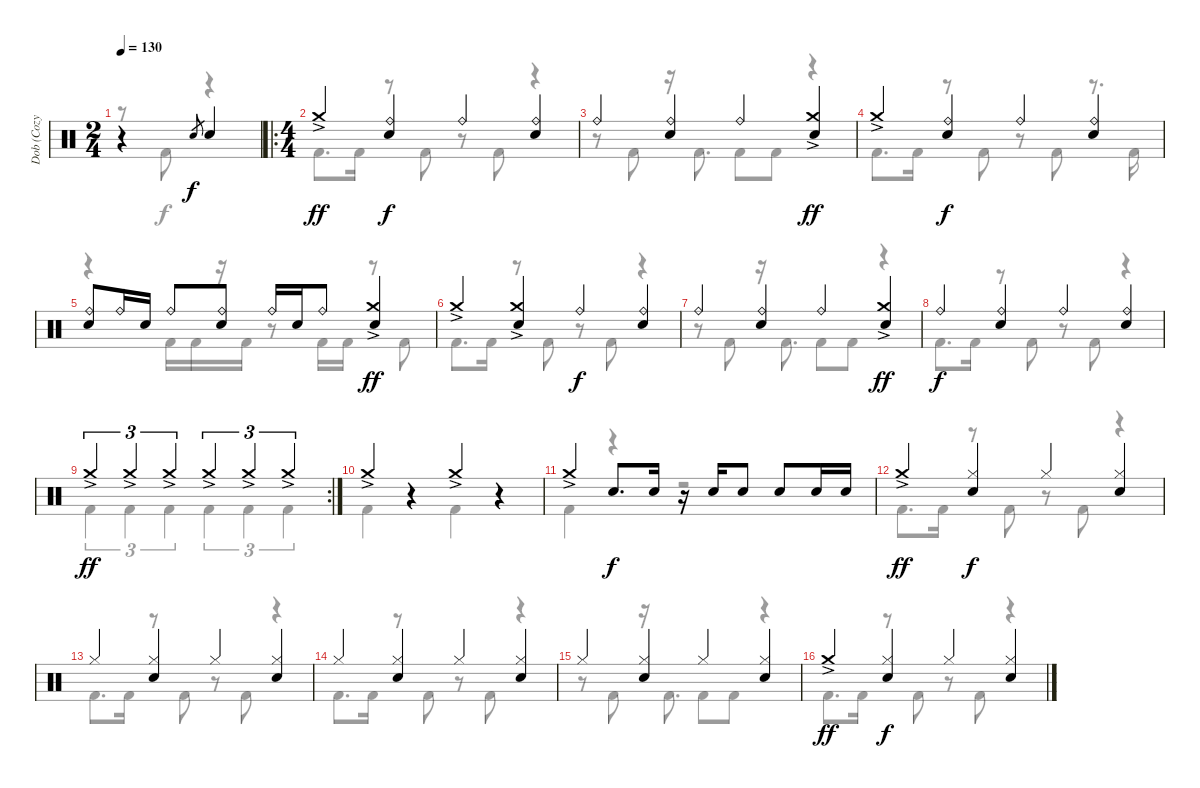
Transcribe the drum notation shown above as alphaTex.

\track ("Dob (Cozy Powell)" "Dob (Cozy ") {instrument percussion}
\staff {score}
\articulation defaults
\voice
\ts (2 4)
\tempo 130
\clef neutral
\ks c
r.4{dy f} "Electric Snare (hit)".8{gr} "Electric Snare (hit)".4 |
\ro
\ts (4 4)
"Crash medium (hit)"{ac}.4{dy ff} ("Ride (bell)" "Electric Snare (hit)").4{dy f} "Ride (bell)".4 ("Ride (bell)" "Electric Snare (hit)").4 |
"Ride (bell)".4 ("Ride (bell)" "Electric Snare (hit)").4 "Ride (bell)".4 ("Crash medium (hit)"{ac} "Electric Snare (hit)").4{dy ff} |
"Crash medium (hit)"{ac}.4 ("Ride (bell)" "Electric Snare (hit)").4{dy f} "Ride (bell)".4 ("Ride (bell)" "Electric Snare (hit)").4 |
("Ride (bell)" "Electric Snare (hit)").8 "Ride (bell)".16 "Electric Snare (hit)".16 "Ride (bell)".8 ("Ride (bell)" "Electric Snare (hit)").8 "Ride (bell)".16 "Electric Snare (hit)".16 "Ride (bell)".8 ("Crash medium (hit)"{ac} "Electric Snare (hit)").4{dy ff} |
"Crash medium (hit)"{ac}.4 ("Crash medium (hit)"{ac} "Electric Snare (hit)").4 "Ride (bell)".4{dy f} ("Ride (bell)" "Electric Snare (hit)").4 |
"Ride (bell)".4 ("Ride (bell)" "Electric Snare (hit)").4 "Ride (bell)".4 ("Crash medium (hit)"{ac} "Electric Snare (hit)").4{dy ff} |
"Ride (bell)".4{dy f} ("Ride (bell)" "Electric Snare (hit)").4 "Ride (bell)".4 ("Ride (bell)" "Electric Snare (hit)").4 |
\rc 2 "Crash medium (hit)"{ac}.4{tu (3 2) dy ff} "Crash medium (hit)"{ac}.4{tu (3 2)} "Crash medium (hit)"{ac}.4{tu (3 2)} "Crash medium (hit)"{ac}.4{tu (3 2)} "Crash medium (hit)"{ac}.4{tu (3 2)} "Crash medium (hit)"{ac}.4{tu (3 2)}
|
"Crash medium (hit)"{ac}.4 r.4 "Crash medium (hit)"{ac}.4 r.4 |
"Crash medium (hit)"{ac}.4 "Electric Snare (hit)".8{d dy f} "Electric Snare (hit)".16 r.16 "Electric Snare (hit)".16 "Electric Snare (hit)".8 "Electric Snare (hit)".8 "Electric Snare (hit)".16 "Electric Snare (hit)".16 |
"Crash medium (hit)"{ac}.4{dy ff} ("Hi-Hat (closed)" "Electric Snare (hit)").4{dy f} "Hi-Hat (closed)".4 ("Hi-Hat (closed)" "Electric Snare (hit)").4 |
"Hi-Hat (closed)".4 ("Hi-Hat (closed)" "Electric Snare (hit)").4 "Hi-Hat (closed)".4 ("Hi-Hat (closed)" "Electric Snare (hit)").4 |
"Hi-Hat (closed)".4 ("Hi-Hat (closed)" "Electric Snare (hit)").4 "Hi-Hat (closed)".4 ("Hi-Hat (closed)" "Electric Snare (hit)").4 |
"Hi-Hat (closed)".4 ("Hi-Hat (closed)" "Electric Snare (hit)").4 "Hi-Hat (closed)".4 ("Hi-Hat (closed)" "Electric Snare (hit)").4 |
"Crash medium (hit)"{ac}.4{dy ff} ("Hi-Hat (closed)" "Electric Snare (hit)").4{dy f} "Hi-Hat (closed)".4 ("Hi-Hat (closed)" "Electric Snare (hit)").4
\voice
\clef neutral
\ottava regular
\simile none
\ks c
r.8{dy f} "Kick (hit) 2".8 r.4 |
"Kick (hit) 2".8{d} "Kick (hit) 2".16 r.8 "Kick (hit) 2".8 r.8 "Kick (hit) 2".8 r.4 |
r.8 "Kick (hit) 2".8 r.16 "Kick (hit) 2".8{d} "Kick (hit) 2".8 "Kick (hit) 2".8 r.4 |
"Kick (hit) 2".8{d} "Kick (hit) 2".16 r.8 "Kick (hit) 2".8 r.8 "Kick (hit) 2".8 r.8{d} "Kick (hit) 2".16 |
r.4 "Kick (hit) 2".16 "Kick (hit) 2".16 r.16 "Kick (hit) 2".16 r.8 "Kick (hit) 2".16 "Kick (hit) 2".16 r.8 "Kick (hit) 2".8 |
"Kick (hit) 2".8{d} "Kick (hit) 2".16 r.8 "Kick (hit) 2".8 r.8 "Kick (hit) 2".8 r.4 |
r.8 "Kick (hit) 2".8 r.16 "Kick (hit) 2".8{d} "Kick (hit) 2".8 "Kick (hit) 2".8 r.4 |
"Kick (hit) 2".8{d} "Kick (hit) 2".16 r.8 "Kick (hit) 2".8 r.8 "Kick (hit) 2".8 r.4 |
"Kick (hit) 2".4{tu (3 2)} "Kick (hit) 2".4{tu (3 2)} "Kick (hit) 2".4{tu (3 2)} "Kick (hit) 2".4{tu (3 2)} "Kick (hit) 2".4{tu (3 2)} "Kick (hit) 2".4{tu (3 2)} |
"Kick (hit) 2".4 r.4 "Kick (hit) 2".4 r.4 |
"Kick (hit) 2".4 r.4 r.2 |
"Kick (hit) 2".8{d} "Kick (hit) 2".16 r.8 "Kick (hit) 2".8 r.8 "Kick (hit) 2".8 r.4 |
"Kick (hit) 2".8{d} "Kick (hit) 2".16 r.8 "Kick (hit) 2".8 r.8 "Kick (hit) 2".8 r.4 |
"Kick (hit) 2".8{d} "Kick (hit) 2".16 r.8 "Kick (hit) 2".8 r.8 "Kick (hit) 2".8 r.4 |
r.8 "Kick (hit) 2".8 r.16 "Kick (hit) 2".8{d} "Kick (hit) 2".8 "Kick (hit) 2".8 r.4 |
"Kick (hit) 2".8{d} "Kick (hit) 2".16 r.8 "Kick (hit) 2".8 r.8 "Kick (hit) 2".8 r.4
